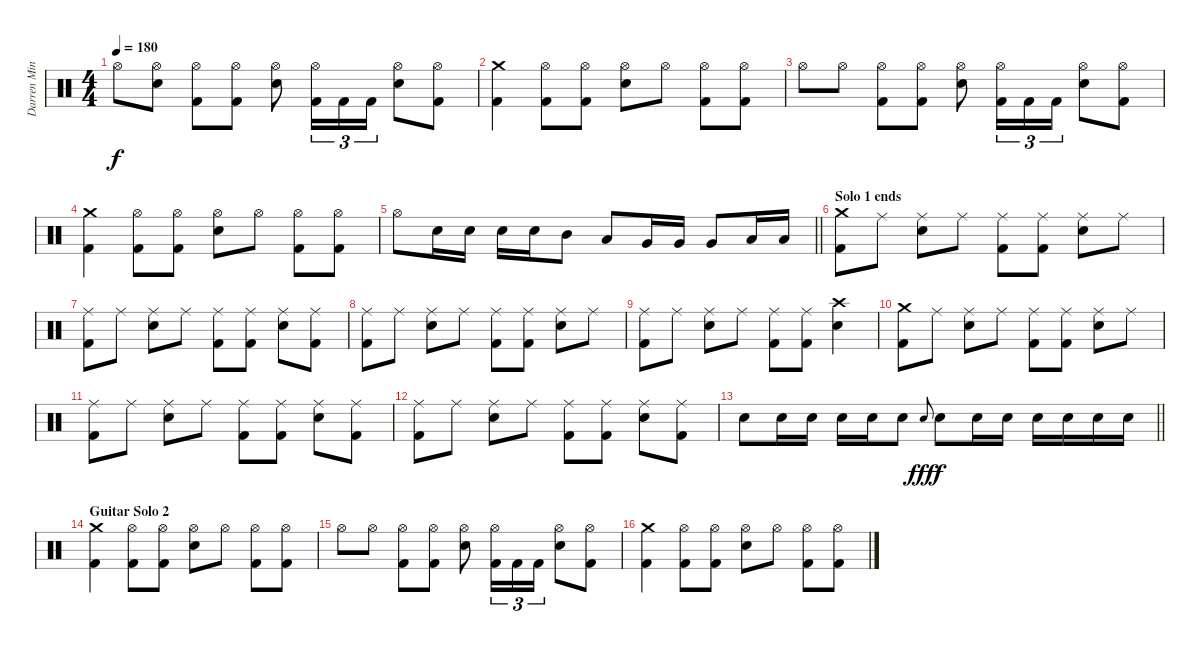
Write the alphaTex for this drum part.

\track ("Darren Minter" "Darren Min") {instrument percussion}
\staff {score}
\articulation defaults
\ts (4 4)
\tempo 180
\clef neutral
\ks c "Hi-Hat (open)".8{dy f}
("Hi-Hat (open)" "Electric Snare (hit)").8 ("Hi-Hat (open)" "Kick (hit) 2").8 ("Hi-Hat (open)" "Kick (hit) 2").8 ("Hi-Hat (open)" "Electric Snare (hit)").8 ("Hi-Hat (open)" "Kick (hit) 2").16{tu (3 2)} "Kick (hit) 2".16{tu (3 2)} "Kick (hit) 2".16{tu (3 2)} ("Hi-Hat (open)" "Electric Snare (hit)").8 ("Hi-Hat (open)" "Kick (hit) 2").8 |
("Crash medium (hit)" "Kick (hit) 2").4 ("Hi-Hat (open)" "Kick (hit) 2").8 ("Hi-Hat (open)" "Kick (hit) 2").8 ("Hi-Hat (open)" "Electric Snare (hit)").8 "Hi-Hat (open)".8 ("Hi-Hat (open)" "Kick (hit) 2").8 ("Hi-Hat (open)" "Kick (hit) 2").8 |
"Hi-Hat (open)".8 "Hi-Hat (open)".8 ("Hi-Hat (open)" "Kick (hit) 2").8 ("Hi-Hat (open)" "Kick (hit) 2").8 ("Hi-Hat (open)" "Electric Snare (hit)").8 ("Hi-Hat (open)" "Kick (hit) 2").16{tu (3 2)} "Kick (hit) 2".16{tu (3 2)} "Kick (hit) 2".16{tu (3 2)} ("Hi-Hat (open)" "Electric Snare (hit)").8 ("Hi-Hat (open)" "Kick (hit) 2").8 |
("Crash medium (hit)" "Kick (hit) 2").4 ("Hi-Hat (open)" "Kick (hit) 2").8 ("Hi-Hat (open)" "Kick (hit) 2").8 ("Hi-Hat (open)" "Electric Snare (hit)").8 "Hi-Hat (open)".8 ("Hi-Hat (open)" "Kick (hit) 2").8 ("Hi-Hat (open)" "Kick (hit) 2").8 |
\barLineRight lightlight "Hi-Hat (open)".8 "Electric Snare (hit)".16 "Electric Snare (hit)".16 "Electric Snare (hit)".16 "Electric Snare (hit)".16 "Mid Tom (hit)".8 "Low Tom (hit)".8 "Very Low Tom (hit)".16 "Very Low Tom (hit)".16 "Very Low Tom (hit)".8 "Low Floor Tom (hit)".16 "Low Floor Tom (hit)".16
|
\section ("" "Solo 1 ends")
("Crash medium (hit)" "Kick (hit) 2").8 "Ride (middle)".8 ("Ride (middle)" "Electric Snare (hit)").8 "Ride (middle)".8 ("Ride (middle)" "Kick (hit) 2").8 ("Ride (middle)" "Kick (hit) 2").8 ("Ride (middle)" "Electric Snare (hit)").8 "Ride (middle)".8 |
("Ride (middle)" "Kick (hit) 2").8 "Ride (middle)".8 ("Ride (middle)" "Electric Snare (hit)").8 "Ride (middle)".8 ("Ride (middle)" "Kick (hit) 2").8 ("Ride (middle)" "Kick (hit) 2").8 ("Ride (middle)" "Electric Snare (hit)").8 ("Ride (middle)" "Kick (hit) 2").8 |
("Ride (middle)" "Kick (hit) 2").8 "Ride (middle)".8 ("Ride (middle)" "Electric Snare (hit)").8 "Ride (middle)".8 ("Ride (middle)" "Kick (hit) 2").8 ("Ride (middle)" "Kick (hit) 2").8 ("Ride (middle)" "Electric Snare (hit)").8 "Ride (middle)".8 |
("Ride (middle)" "Kick (hit) 2").8 "Ride (middle)".8 ("Ride (middle)" "Electric Snare (hit)").8 "Ride (middle)".8 ("Ride (middle)" "Kick (hit) 2").8 ("Ride (middle)" "Kick (hit) 2").8 ("Crash high (hit)" "Electric Snare (hit)").4 |
("Crash medium (hit)" "Kick (hit) 2").8 "Ride (middle)".8 ("Ride (middle)" "Electric Snare (hit)").8 "Ride (middle)".8 ("Ride (middle)" "Kick (hit) 2").8 ("Ride (middle)" "Kick (hit) 2").8 ("Ride (middle)" "Electric Snare (hit)").8 "Ride (middle)".8 |
("Ride (middle)" "Kick (hit) 2").8 "Ride (middle)".8 ("Ride (middle)" "Electric Snare (hit)").8 "Ride (middle)".8 ("Ride (middle)" "Kick (hit) 2").8 ("Ride (middle)" "Kick (hit) 2").8 ("Ride (middle)" "Electric Snare (hit)").8 ("Ride (middle)" "Kick (hit) 2").8 |
("Ride (middle)" "Kick (hit) 2").8 "Ride (middle)".8 ("Ride (middle)" "Electric Snare (hit)").8 "Ride (middle)".8 ("Ride (middle)" "Kick (hit) 2").8 ("Ride (middle)" "Kick (hit) 2").8 ("Ride (middle)" "Electric Snare (hit)").8 ("Ride (middle)" "Kick (hit) 2").8 |
\barLineRight lightlight "Electric Snare (hit)".8 "Electric Snare (hit)".16 "Electric Snare (hit)".16 "Electric Snare (hit)".16 "Electric Snare (hit)".16 "Electric Snare (hit)".8 "Electric Snare (hit)".8{gr onbeat dy fff} "Electric Snare (hit)".8{dy f} "Electric Snare (hit)".16 "Electric Snare (hit)".16 "Electric Snare (hit)".16 "Electric Snare (hit)".16 "Electric Snare (hit)".16 "Electric Snare (hit)".16
|
\section ("" "Guitar Solo 2")
("Crash medium (hit)" "Kick (hit) 2").4 ("Hi-Hat (open)" "Kick (hit) 2").8 ("Hi-Hat (open)" "Kick (hit) 2").8 ("Hi-Hat (open)" "Electric Snare (hit)").8 "Hi-Hat (open)".8 ("Hi-Hat (open)" "Kick (hit) 2").8 ("Hi-Hat (open)" "Kick (hit) 2").8 |
"Hi-Hat (open)".8 "Hi-Hat (open)".8 ("Hi-Hat (open)" "Kick (hit) 2").8 ("Hi-Hat (open)" "Kick (hit) 2").8 ("Hi-Hat (open)" "Electric Snare (hit)").8 ("Hi-Hat (open)" "Kick (hit) 2").16{tu (3 2)} "Kick (hit) 2".16{tu (3 2)} "Kick (hit) 2".16{tu (3 2)} ("Hi-Hat (open)" "Electric Snare (hit)").8 ("Hi-Hat (open)" "Kick (hit) 2").8 |
("Crash medium (hit)" "Kick (hit) 2").4 ("Hi-Hat (open)" "Kick (hit) 2").8 ("Hi-Hat (open)" "Kick (hit) 2").8 ("Hi-Hat (open)" "Electric Snare (hit)").8 "Hi-Hat (open)".8 ("Hi-Hat (open)" "Kick (hit) 2").8 ("Hi-Hat (open)" "Kick (hit) 2").8
